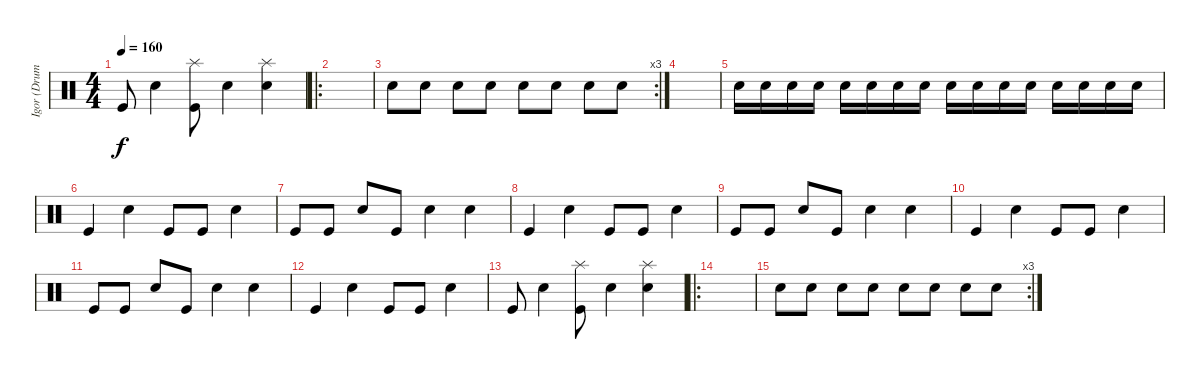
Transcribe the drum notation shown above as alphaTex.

\track ("Igor (Drum- Bass & Snare)" "Igor (Drum") {instrument percussion}
\staff {score}
\articulation defaults
\ts (4 4)
\tempo 160
\clef neutral
\ks c "Kick (hit)".8{dy f} "Snare (hit) 2".4
("Splash (hit)" "Kick (hit)").8 "Snare (hit) 2".4 ("Splash (hit)" "Snare (hit) 2").4 |
\ro
|
\rc 3 "Snare (hit) 2".8 "Snare (hit) 2".8 "Snare (hit) 2".8 "Snare (hit) 2".8 "Snare (hit) 2".8 "Snare (hit) 2".8 "Snare (hit) 2".8 "Snare (hit) 2".8
|
|
"Snare (hit) 2".16 "Snare (hit) 2".16 "Snare (hit) 2".16 "Snare (hit) 2".16 "Snare (hit) 2".16 "Snare (hit) 2".16 "Snare (hit) 2".16 "Snare (hit) 2".16 "Snare (hit) 2".16 "Snare (hit) 2".16 "Snare (hit) 2".16 "Snare (hit) 2".16 "Snare (hit) 2".16 "Snare (hit) 2".16 "Snare (hit) 2".16 "Snare (hit) 2".16 |
"Kick (hit)".4 "Snare (hit) 2".4 "Kick (hit)".8 "Kick (hit)".8 "Snare (hit) 2".4 |
"Kick (hit)".8 "Kick (hit)".8 "Snare (hit) 2".8 "Kick (hit)".8 "Snare (hit) 2".4 "Snare (hit) 2".4 |
"Kick (hit)".4 "Snare (hit) 2".4 "Kick (hit)".8 "Kick (hit)".8 "Snare (hit) 2".4 |
"Kick (hit)".8 "Kick (hit)".8 "Snare (hit) 2".8 "Kick (hit)".8 "Snare (hit) 2".4 "Snare (hit) 2".4 |
"Kick (hit)".4 "Snare (hit) 2".4 "Kick (hit)".8 "Kick (hit)".8 "Snare (hit) 2".4 |
"Kick (hit)".8 "Kick (hit)".8 "Snare (hit) 2".8 "Kick (hit)".8 "Snare (hit) 2".4 "Snare (hit) 2".4 |
"Kick (hit)".4 "Snare (hit) 2".4 "Kick (hit)".8 "Kick (hit)".8 "Snare (hit) 2".4 |
"Kick (hit)".8 "Snare (hit) 2".4 ("Splash (hit)" "Kick (hit)").8 "Snare (hit) 2".4 ("Splash (hit)" "Snare (hit) 2").4 |
\ro
|
\rc 3 "Snare (hit) 2".8 "Snare (hit) 2".8 "Snare (hit) 2".8 "Snare (hit) 2".8 "Snare (hit) 2".8 "Snare (hit) 2".8 "Snare (hit) 2".8 "Snare (hit) 2".8
